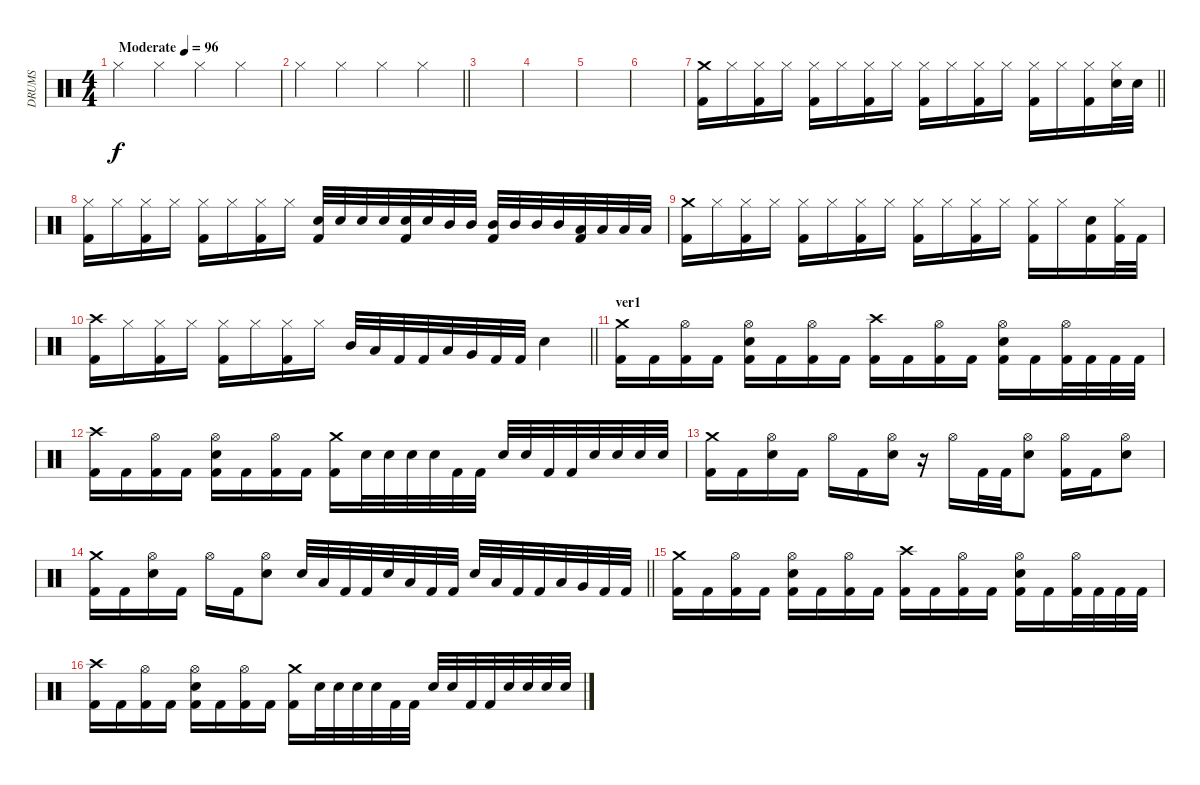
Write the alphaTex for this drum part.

\track ("DRUMS" "DRUMS") {instrument percussion}
\staff {score}
\articulation defaults
\ts (4 4)
\tempo (96 "Moderate")
\clef neutral
\ks c "Hi-Hat (closed)".4{dy f} "Hi-Hat (closed)".4 "Hi-Hat (closed)".4 "Hi-Hat (closed)".4
|
\barLineRight lightlight "Hi-Hat (closed)".4 "Hi-Hat (closed)".4 "Hi-Hat (closed)".4 "Hi-Hat (closed)".4
|
|
|
|
|
\barLineRight lightlight
("Kick (hit) 2" "Crash medium (hit)").16 "Hi-Hat (closed)".16 ("Kick (hit) 2" "Hi-Hat (closed)").16 "Hi-Hat (closed)".16 ("Kick (hit) 2" "Hi-Hat (closed)").16 "Hi-Hat (closed)".16 ("Kick (hit) 2" "Hi-Hat (closed)").16 "Hi-Hat (closed)".16 ("Kick (hit) 2" "Hi-Hat (closed)").16 "Hi-Hat (closed)".16 ("Kick (hit) 2" "Hi-Hat (closed)").16 "Hi-Hat (closed)".16 ("Kick (hit) 2" "Hi-Hat (closed)").16 "Hi-Hat (closed)".16 ("Kick (hit) 2" "Hi-Hat (closed)").16 ("Electric Snare (hit)" "Hi-Hat (closed)").32 "Electric Snare (hit)".32 |
("Kick (hit) 2" "Hi-Hat (closed)").16 "Hi-Hat (closed)".16 ("Kick (hit) 2" "Hi-Hat (closed)").16 "Hi-Hat (closed)".16 ("Kick (hit) 2" "Hi-Hat (closed)").16 "Hi-Hat (closed)".16 ("Kick (hit) 2" "Hi-Hat (closed)").16 "Hi-Hat (closed)".16 ("Kick (hit) 2" "Electric Snare (hit)").32 "Electric Snare (hit)".32 "Electric Snare (hit)".32 "Electric Snare (hit)".32 ("Kick (hit) 2" "Electric Snare (hit)").32 "Electric Snare (hit)".32 "Mid Tom (hit)".32 "Mid Tom (hit)".32 ("Kick (hit) 2" "Mid Tom (hit)").32 "Mid Tom (hit)".32 "Mid Tom (hit)".32 "Mid Tom (hit)".32 ("Kick (hit) 2" "Low Tom (hit)").32 "Low Tom (hit)".32 "Low Tom (hit)".32 "Low Tom (hit)".32 |
("Kick (hit) 2" "Crash medium (hit)").16 "Hi-Hat (closed)".16 ("Kick (hit) 2" "Hi-Hat (closed)").16 "Hi-Hat (closed)".16 ("Kick (hit) 2" "Hi-Hat (closed)").16 "Hi-Hat (closed)".16 ("Kick (hit) 2" "Hi-Hat (closed)").16 "Hi-Hat (closed)".16 ("Kick (hit) 2" "Hi-Hat (closed)").16 "Hi-Hat (closed)".16 ("Kick (hit) 2" "Hi-Hat (closed)").16 "Hi-Hat (closed)".16 ("Kick (hit) 2" "Hi-Hat (closed)").16 "Hi-Hat (closed)".16 ("Kick (hit) 2" "Snare (hit)").16 ("Kick (hit) 2" "Hi-Hat (closed)").32 "Kick (hit) 2".32 |
\barLineRight lightlight
("Kick (hit) 2" "Crash high (hit)").16 "Hi-Hat (closed)".16 ("Kick (hit) 2" "Hi-Hat (closed)").16 "Hi-Hat (closed)".16 ("Kick (hit) 2" "Hi-Hat (closed)").16 "Hi-Hat (closed)".16 ("Kick (hit) 2" "Hi-Hat (closed)").16 "Hi-Hat (closed)".16 "Mid Tom (hit)".32 "Low Tom (hit)".32 "Kick (hit) 2".32 "Kick (hit) 2".32 "Low Tom (hit)".32 "Very Low Tom (hit)".32 "Kick (hit) 2".32 "Kick (hit) 2".32 "Electric Snare (hit)".4 |
\section ("" "ver1")
("Kick (hit) 2" "Crash medium (hit)").16 "Kick (hit) 2".16 ("Kick (hit) 2" "Hi-Hat (open)").16 "Kick (hit) 2".16 ("Kick (hit) 2" "Electric Snare (hit)" "Hi-Hat (open)").16 "Kick (hit) 2".16 ("Kick (hit) 2" "Hi-Hat (open)").16 "Kick (hit) 2".16 ("Kick (hit) 2" "Crash high (hit)").16 "Kick (hit) 2".16 ("Kick (hit) 2" "Hi-Hat (open)").16 "Kick (hit) 2".16 ("Kick (hit) 2" "Electric Snare (hit)" "Hi-Hat (open)").16 "Kick (hit) 2".16 ("Kick (hit) 2" "Hi-Hat (open)").32 "Kick (hit) 2".32 "Kick (hit) 2".32 "Kick (hit) 2".32 |
("Kick (hit) 2" "Crash high (hit)").16 "Kick (hit) 2".16 ("Kick (hit) 2" "Hi-Hat (open)").16 "Kick (hit) 2".16 ("Kick (hit) 2" "Electric Snare (hit)" "Hi-Hat (open)").16 "Kick (hit) 2".16 ("Kick (hit) 2" "Hi-Hat (open)").16 "Kick (hit) 2".16 ("Kick (hit) 2" "Crash medium (hit)").16 "Electric Snare (hit)".32 "Electric Snare (hit)".32 "Electric Snare (hit)".32 "Electric Snare (hit)".32 "Kick (hit) 2".32 "Kick (hit) 2".32 "Electric Snare (hit)".32 "Electric Snare (hit)".32 "Kick (hit) 2".32 "Kick (hit) 2".32 "Electric Snare (hit)".32 "Electric Snare (hit)".32 "Electric Snare (hit)".32 "Electric Snare (hit)".32 |
("Kick (hit) 2" "Crash medium (hit)").16 "Kick (hit) 2".16 ("Electric Snare (hit)" "Hi-Hat (open)").16 "Kick (hit) 2".16 "Hi-Hat (open)".16 "Kick (hit) 2".16 ("Electric Snare (hit)" "Hi-Hat (open)").16 r.16 "Hi-Hat (open)".16 "Kick (hit) 2".32 "Kick (hit) 2".32 ("Electric Snare (hit)" "Hi-Hat (open)").8 ("Kick (hit) 2" "Hi-Hat (open)").16 "Kick (hit) 2".16 ("Electric Snare (hit)" "Hi-Hat (open)").8 |
\barLineRight lightlight
("Kick (hit) 2" "Crash medium (hit)").16 "Kick (hit) 2".16 ("Electric Snare (hit)" "Hi-Hat (open)").16 "Kick (hit) 2".16 "Hi-Hat (open)".16 "Kick (hit) 2".16 ("Electric Snare (hit)" "Hi-Hat (open)").8 "Electric Snare (hit)".32 "Low Tom (hit)".32 "Kick (hit) 2".32 "Kick (hit) 2".32 "Electric Snare (hit)".32 "Low Tom (hit)".32 "Kick (hit) 2".32 "Kick (hit) 2".32 "Electric Snare (hit)".32 "Low Tom (hit)".32 "Kick (hit) 2".32 "Kick (hit) 2".32 "Low Tom (hit)".32 "Very Low Tom (hit)".32 "Kick (hit) 2".32 "Kick (hit) 2".32 |
("Kick (hit) 2" "Crash medium (hit)").16 "Kick (hit) 2".16 ("Kick (hit) 2" "Hi-Hat (open)").16 "Kick (hit) 2".16 ("Kick (hit) 2" "Electric Snare (hit)" "Hi-Hat (open)").16 "Kick (hit) 2".16 ("Kick (hit) 2" "Hi-Hat (open)").16 "Kick (hit) 2".16 ("Kick (hit) 2" "Crash high (hit)").16 "Kick (hit) 2".16 ("Kick (hit) 2" "Hi-Hat (open)").16 "Kick (hit) 2".16 ("Kick (hit) 2" "Electric Snare (hit)" "Hi-Hat (open)").16 "Kick (hit) 2".16 ("Kick (hit) 2" "Hi-Hat (open)").32 "Kick (hit) 2".32 "Kick (hit) 2".32 "Kick (hit) 2".32 |
("Kick (hit) 2" "Crash high (hit)").16 "Kick (hit) 2".16 ("Kick (hit) 2" "Hi-Hat (open)").16 "Kick (hit) 2".16 ("Kick (hit) 2" "Electric Snare (hit)" "Hi-Hat (open)").16 "Kick (hit) 2".16 ("Kick (hit) 2" "Hi-Hat (open)").16 "Kick (hit) 2".16 ("Kick (hit) 2" "Crash medium (hit)").16 "Electric Snare (hit)".32 "Electric Snare (hit)".32 "Electric Snare (hit)".32 "Electric Snare (hit)".32 "Kick (hit) 2".32 "Kick (hit) 2".32 "Electric Snare (hit)".32 "Electric Snare (hit)".32 "Kick (hit) 2".32 "Kick (hit) 2".32 "Electric Snare (hit)".32 "Electric Snare (hit)".32 "Electric Snare (hit)".32 "Electric Snare (hit)".32
